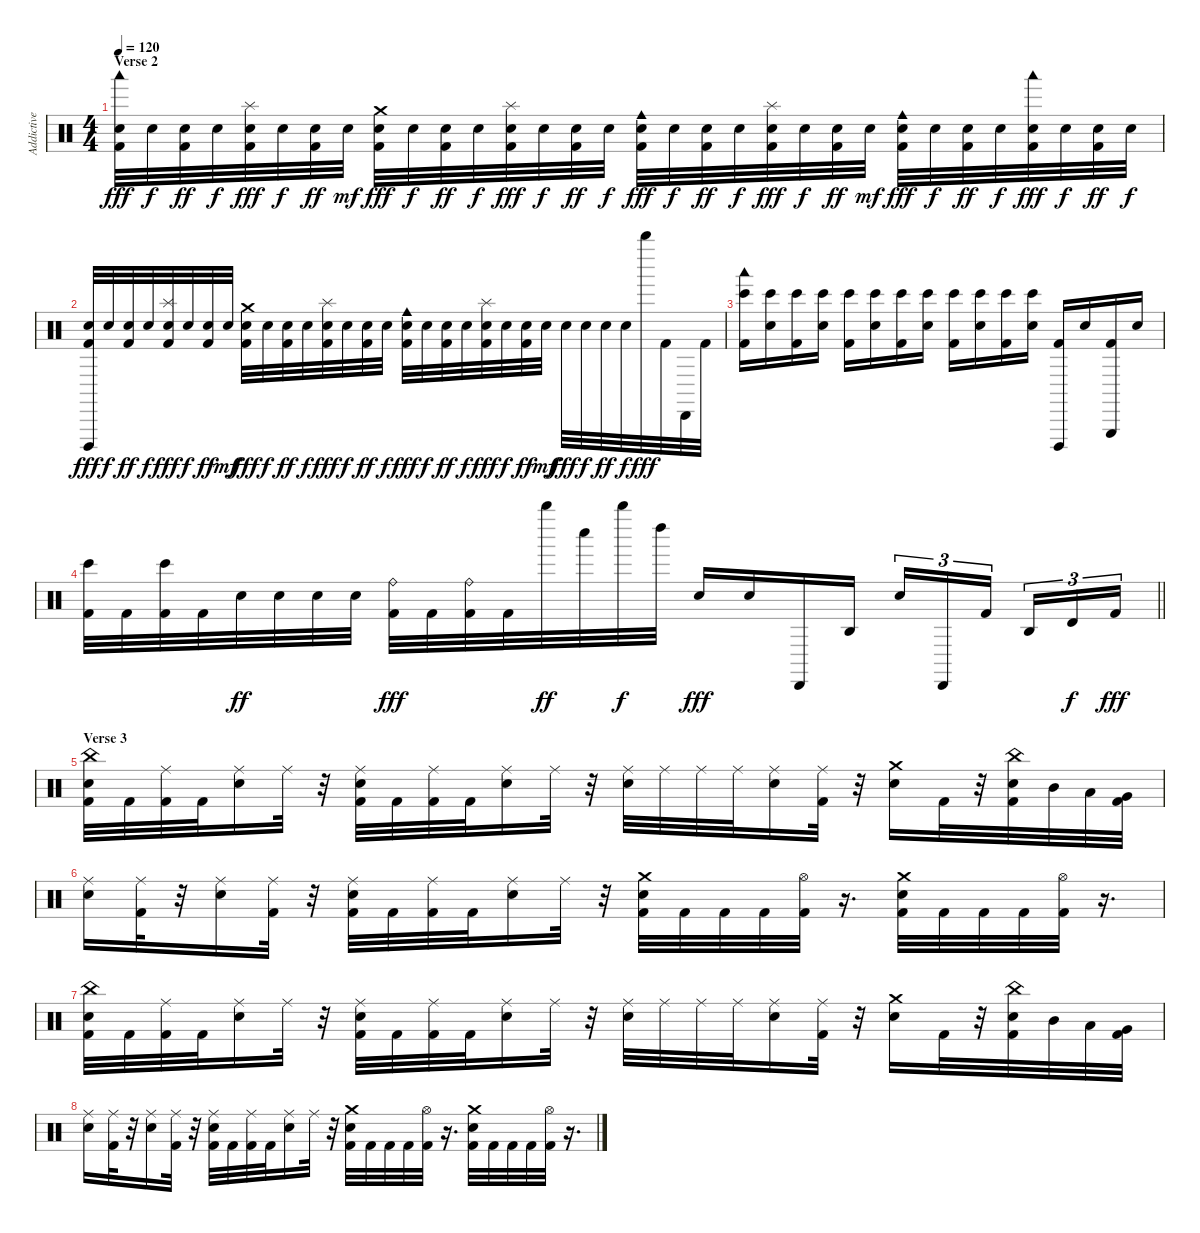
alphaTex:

\track ("Addictive Drums 07" "Addictive ") {instrument percussion}
\staff {score}
\articulation defaults
\ts (4 4)
\section ("" "Verse 2")
\tempo 120
\clef neutral
\ks c
("Kick (hit) 2" "Snare (hit) 2" "Woodblock low (hit)").32{dy fff} "Snare (hit) 2".32{dy f} ("Kick (hit) 2" "Snare (hit) 2").32{dy ff} "Snare (hit) 2".32{dy f} ("Kick (hit) 2" "Snare (hit) 2" "Splash (hit)").32{dy fff} "Snare (hit) 2".32{dy f} ("Kick (hit) 2" "Snare (hit) 2").32{dy ff} "Snare (hit) 2".32{dy mf} ("Kick (hit) 2" "Snare (hit) 2" "Crash medium (hit)").32{dy fff} "Snare (hit) 2".32{dy f} ("Kick (hit) 2" "Snare (hit) 2").32{dy ff} "Snare (hit) 2".32{dy f} ("Kick (hit) 2" "Snare (hit) 2" "Splash (hit)").32{dy fff} "Snare (hit) 2".32{dy f} ("Kick (hit) 2" "Snare (hit) 2").32{dy ff} "Snare (hit) 2".32{dy f} ("Kick (hit) 2" "Snare (hit) 2" "Cowbell medium (hit)").32{dy fff} "Snare (hit) 2".32{dy f} ("Kick (hit) 2" "Snare (hit) 2").32{dy ff} "Snare (hit) 2".32{dy f} ("Kick (hit) 2" "Snare (hit) 2" "Splash (hit)").32{dy fff} "Snare (hit) 2".32{dy f} ("Kick (hit) 2" "Snare (hit) 2").32{dy ff} "Snare (hit) 2".32{dy mf} ("Kick (hit) 2" "Snare (hit) 2" "Cowbell medium (hit)").32{dy fff} "Snare (hit) 2".32{dy f} ("Kick (hit) 2" "Snare (hit) 2").32{dy ff} "Snare (hit) 2".32{dy f} ("Kick (hit) 2" "Snare (hit) 2" "Woodblock low (hit)").32{dy fff} "Snare (hit) 2".32{dy f} ("Kick (hit) 2" "Snare (hit) 2").32{dy ff} "Snare (hit) 2".32{dy f} |
("Kick (hit) 2" "Snare (hit) 2" "Cuica (open)").32{dy fff} "Snare (hit) 2".32{dy f} ("Kick (hit) 2" "Snare (hit) 2").32{dy ff} "Snare (hit) 2".32{dy f} ("Kick (hit) 2" "Snare (hit) 2" "Splash (hit)").32{dy fff} "Snare (hit) 2".32{dy f} ("Kick (hit) 2" "Snare (hit) 2").32{dy ff} "Snare (hit) 2".32{dy mf} ("Kick (hit) 2" "Snare (hit) 2" "Crash medium (hit)").32{dy fff} "Snare (hit) 2".32{dy f} ("Kick (hit) 2" "Snare (hit) 2").32{dy ff} "Snare (hit) 2".32{dy f} ("Kick (hit) 2" "Snare (hit) 2" "Splash (hit)").32{dy fff} "Snare (hit) 2".32{dy f} ("Kick (hit) 2" "Snare (hit) 2").32{dy ff} "Snare (hit) 2".32{dy f} ("Kick (hit) 2" "Snare (hit) 2" "Cowbell medium (hit)").32{dy fff} "Snare (hit) 2".32{dy f} ("Kick (hit) 2" "Snare (hit) 2").32{dy ff} "Snare (hit) 2".32{dy f} ("Kick (hit) 2" "Snare (hit) 2" "Splash (hit)").32{dy fff} "Snare (hit) 2".32{dy f} ("Kick (hit) 2" "Snare (hit) 2").32{dy ff} "Snare (hit) 2".32{dy mf} "Snare (hit) 2".32{dy fff} "Snare (hit) 2".32{dy f} "Snare (hit) 2".32{dy ff} "Snare (hit) 2".32{dy f} "Whistle high (hit)".32{dy fff} "Kick (hit) 2".32 "Cabasa (hit)".32 "Kick (hit) 2".32 |
("Kick (hit) 2" "Bongo High (hit)" "Woodblock low (hit)").16 ("Snare (hit) 2" "Bongo High (hit)").16 ("Kick (hit) 2" "Bongo High (hit)").16 ("Snare (hit) 2" "Bongo High (hit)").16 ("Kick (hit) 2" "Bongo High (hit)").16 ("Snare (hit) 2" "Bongo High (hit)").16 ("Kick (hit) 2" "Bongo High (hit)").16 ("Snare (hit) 2" "Bongo High (hit)").16 ("Kick (hit) 2" "Bongo High (hit)").16 ("Snare (hit) 2" "Bongo High (hit)").16 ("Kick (hit) 2" "Bongo High (hit)").16 ("Snare (hit) 2" "Bongo High (hit)").16 ("Kick (hit) 2" "Cuica (open)").16 "Snare (hit) 2".16 ("Kick (hit) 2" "Triangle (hit)").16 "Snare (hit) 2".16 |
\barLineRight lightlight
("Kick (hit) 2" "Bongo High (hit)").32 "Kick (hit) 2".32 ("Kick (hit) 2" "Bongo High (hit)").32 "Kick (hit) 2".32 "Snare (hit) 2".32{dy ff} "Snare (hit) 2".32 "Snare (hit) 2".32 "Snare (hit) 2".32 ("Kick (hit) 2" "Ride (bell)").32{dy fff} "Kick (hit) 2".32 ("Kick (hit) 2" "Ride (bell)").32 "Kick (hit) 2".32 "Whistle high (hit)".32{dy ff} "Whistle low (hit)".32 "Whistle high (hit)".32{dy f} "Left Maraca (hit)".32 "Snare (hit) 2".16{dy fff} "Snare (hit) 2".16 "Cabasa (hit)".16 "Agogo high (hit)".16 "Snare (hit) 2".16{tu (3 2)} "Cabasa (hit)".16{tu (3 2)} "Kick (hit) 2".16{tu (3 2) beam splitsecondary} "Agogo high (hit)".16{tu (3 2)} "Timbale high (hit)".16{tu (3 2) dy f} "Kick (hit) 2".16{tu (3 2) dy fff} |
\section ("" "Verse 3")
("Kick (hit) 2" "Snare (hit) 2" "China (hit)").32 "Kick (hit) 2".32 ("Kick (hit) 2" "Ride (middle)").32 "Kick (hit) 2".32 ("Snare (hit) 2" "Ride (middle)").16 "Ride (middle)".32 r.32 ("Kick (hit) 2" "Snare (hit) 2" "Ride (middle)").32 "Kick (hit) 2".32 ("Kick (hit) 2" "Ride (middle)").32 "Kick (hit) 2".32 ("Snare (hit) 2" "Ride (middle)").16 "Ride (middle)".32 r.32 ("Snare (hit) 2" "Ride (middle)").32 "Ride (middle)".32 "Ride (middle)".32 "Ride (middle)".32 ("Snare (hit) 2" "Ride (middle)").16 ("Kick (hit) 2" "Ride (middle)").32 r.32 ("Snare (hit) 2" "Crash medium (hit)").16 "Kick (hit) 2".32 r.32 ("Kick (hit) 2" "Snare (hit) 2" "China (hit)").32 "Mid Tom (hit)".32 "Low Tom (hit)".32 ("Kick (hit) 2" "Very Low Tom (hit)").32 |
("Snare (hit) 2" "Ride (middle)").16 ("Kick (hit) 2" "Ride (middle)").32 r.32 ("Snare (hit) 2" "Ride (middle)").16 ("Kick (hit) 2" "Ride (middle)").32 r.32 ("Kick (hit) 2" "Snare (hit) 2" "Ride (middle)").32 "Kick (hit) 2".32 ("Kick (hit) 2" "Ride (middle)").32 "Kick (hit) 2".32 ("Snare (hit) 2" "Ride (middle)").16 "Ride (middle)".32 r.32 ("Kick (hit) 2" "Snare (hit) 2" "Crash medium (hit)").32 "Kick (hit) 2".32 "Kick (hit) 2".32 "Kick (hit) 2".32 ("Kick (hit) 2" "Hi-Hat (open)").32 r.16{d} ("Kick (hit) 2" "Snare (hit) 2" "Crash medium (hit)").32 "Kick (hit) 2".32 "Kick (hit) 2".32 "Kick (hit) 2".32 ("Kick (hit) 2" "Hi-Hat (open)").32 r.16{d} |
("Kick (hit) 2" "Snare (hit) 2" "China (hit)").32 "Kick (hit) 2".32 ("Kick (hit) 2" "Ride (middle)").32 "Kick (hit) 2".32 ("Snare (hit) 2" "Ride (middle)").16 "Ride (middle)".32 r.32 ("Kick (hit) 2" "Snare (hit) 2" "Ride (middle)").32 "Kick (hit) 2".32 ("Kick (hit) 2" "Ride (middle)").32 "Kick (hit) 2".32 ("Snare (hit) 2" "Ride (middle)").16 "Ride (middle)".32 r.32 ("Snare (hit) 2" "Ride (middle)").32 "Ride (middle)".32 "Ride (middle)".32 "Ride (middle)".32 ("Snare (hit) 2" "Ride (middle)").16 ("Kick (hit) 2" "Ride (middle)").32 r.32 ("Snare (hit) 2" "Crash medium (hit)").16 "Kick (hit) 2".32 r.32 ("Kick (hit) 2" "Snare (hit) 2" "China (hit)").32 "Mid Tom (hit)".32 "Low Tom (hit)".32 ("Kick (hit) 2" "Very Low Tom (hit)").32 |
("Snare (hit) 2" "Ride (middle)").16 ("Kick (hit) 2" "Ride (middle)").32 r.32 ("Snare (hit) 2" "Ride (middle)").16 ("Kick (hit) 2" "Ride (middle)").32 r.32 ("Kick (hit) 2" "Snare (hit) 2" "Ride (middle)").32 "Kick (hit) 2".32 ("Kick (hit) 2" "Ride (middle)").32 "Kick (hit) 2".32 ("Snare (hit) 2" "Ride (middle)").16 "Ride (middle)".32 r.32 ("Kick (hit) 2" "Snare (hit) 2" "Crash medium (hit)").32 "Kick (hit) 2".32 "Kick (hit) 2".32 "Kick (hit) 2".32 ("Kick (hit) 2" "Hi-Hat (open)").32 r.16{d} ("Kick (hit) 2" "Snare (hit) 2" "Crash medium (hit)").32 "Kick (hit) 2".32 "Kick (hit) 2".32 "Kick (hit) 2".32 ("Kick (hit) 2" "Hi-Hat (open)").32 r.16{d}
